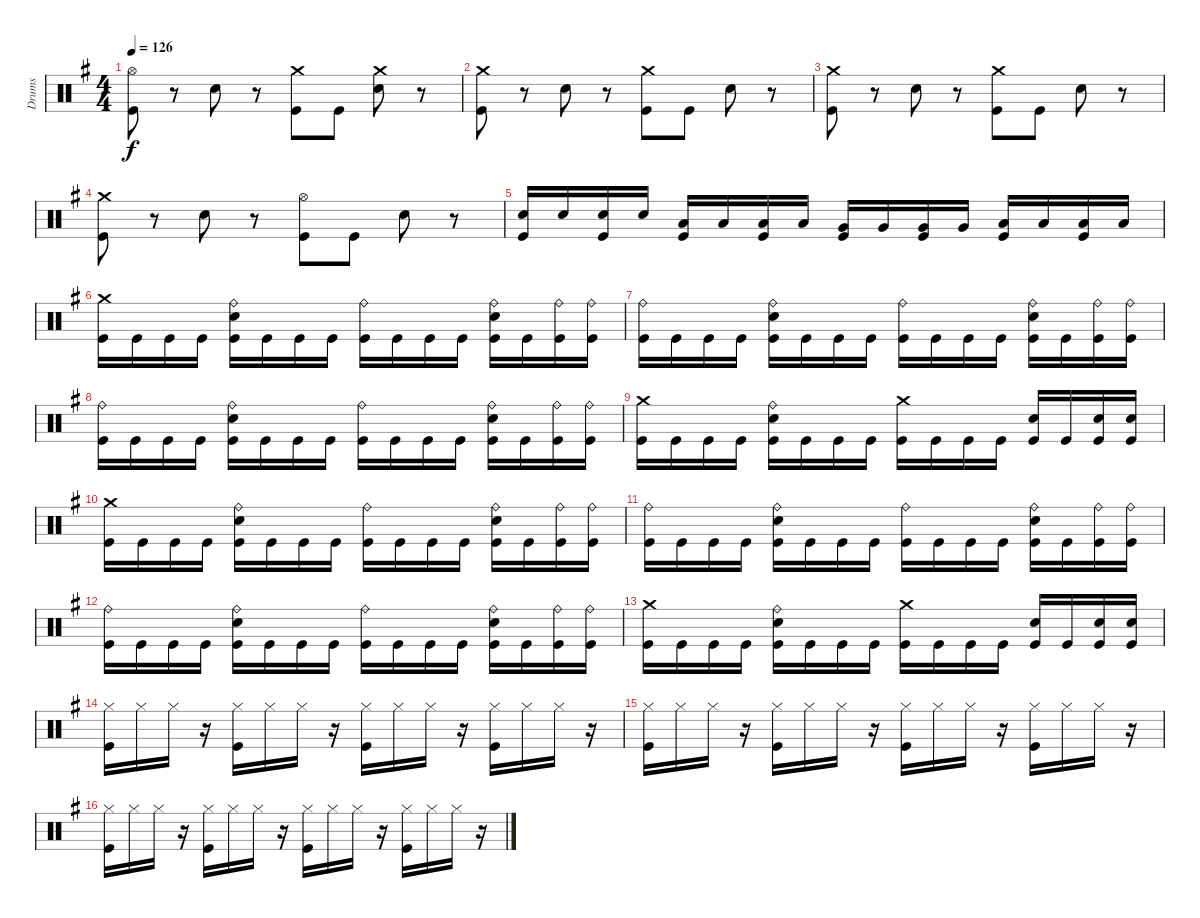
\track ("Drums" "Drums") {instrument percussion}
\staff {score}
\articulation defaults
\ts (4 4)
\tempo 126
\clef neutral
\ks g
("Kick (hit)" "Hi-Hat (open)").8{dy f} r.8 "Electric Snare (hit)".8 r.8 ("Kick (hit)" "Crash medium (hit)").8 "Kick (hit)".8 ("Electric Snare (hit)" "Crash medium (hit)").8 r.8 |
("Kick (hit)" "Crash medium (hit)").8 r.8 "Electric Snare (hit)".8 r.8 ("Kick (hit)" "Crash medium (hit)").8 "Kick (hit)".8 "Electric Snare (hit)".8 r.8 |
("Kick (hit)" "Crash medium (hit)").8 r.8 "Electric Snare (hit)".8 r.8 ("Kick (hit)" "Crash medium (hit)").8 "Kick (hit)".8 "Electric Snare (hit)".8 r.8 |
("Kick (hit)" "Crash medium (hit)").8 r.8 "Electric Snare (hit)".8 r.8 ("Kick (hit)" "Hi-Hat (open)").8 "Kick (hit)".8 "Electric Snare (hit)".8 r.8 |
("Kick (hit)" "Electric Snare (hit)").16 "Electric Snare (hit)".16 ("Kick (hit)" "Electric Snare (hit)").16 "Electric Snare (hit)".16 ("Kick (hit)" "Low Tom (hit)").16 "Low Tom (hit)".16 ("Kick (hit)" "Low Tom (hit)").16 "Low Tom (hit)".16 ("Kick (hit)" "Very Low Tom (hit)").16 "Very Low Tom (hit)".16 ("Kick (hit)" "Very Low Tom (hit)").16 "Very Low Tom (hit)".16 ("Kick (hit)" "Low Floor Tom (hit)").16 "Low Floor Tom (hit)".16 ("Kick (hit)" "Low Floor Tom (hit)").16 "Low Floor Tom (hit)".16 |
("Kick (hit)" "Crash medium (hit)").16 "Kick (hit)".16 "Kick (hit)".16 "Kick (hit)".16 ("Kick (hit)" "Electric Snare (hit)" "Ride (bell)").16 "Kick (hit)".16 "Kick (hit)".16 "Kick (hit)".16 ("Kick (hit)" "Ride (bell)").16 "Kick (hit)".16 "Kick (hit)".16 "Kick (hit)".16 ("Kick (hit)" "Electric Snare (hit)" "Ride (bell)").16 "Kick (hit)".16 ("Kick (hit)" "Ride (bell)").16 ("Kick (hit)" "Ride (bell)").16 |
("Kick (hit)" "Ride (bell)").16 "Kick (hit)".16 "Kick (hit)".16 "Kick (hit)".16 ("Kick (hit)" "Electric Snare (hit)" "Ride (bell)").16 "Kick (hit)".16 "Kick (hit)".16 "Kick (hit)".16 ("Kick (hit)" "Ride (bell)").16 "Kick (hit)".16 "Kick (hit)".16 "Kick (hit)".16 ("Kick (hit)" "Electric Snare (hit)" "Ride (bell)").16 "Kick (hit)".16 ("Kick (hit)" "Ride (bell)").16 ("Kick (hit)" "Ride (bell)").16 |
("Kick (hit)" "Ride (bell)").16 "Kick (hit)".16 "Kick (hit)".16 "Kick (hit)".16 ("Kick (hit)" "Electric Snare (hit)" "Ride (bell)").16 "Kick (hit)".16 "Kick (hit)".16 "Kick (hit)".16 ("Kick (hit)" "Ride (bell)").16 "Kick (hit)".16 "Kick (hit)".16 "Kick (hit)".16 ("Kick (hit)" "Electric Snare (hit)" "Ride (bell)").16 "Kick (hit)".16 ("Kick (hit)" "Ride (bell)").16 ("Kick (hit)" "Ride (bell)").16 |
("Kick (hit)" "Crash medium (hit)").16 "Kick (hit)".16 "Kick (hit)".16 "Kick (hit)".16 ("Kick (hit)" "Electric Snare (hit)" "Ride (bell)").16 "Kick (hit)".16 "Kick (hit)".16 "Kick (hit)".16 ("Kick (hit)" "Crash medium (hit)").16 "Kick (hit)".16 "Kick (hit)".16 "Kick (hit)".16 ("Kick (hit)" "Electric Snare (hit)").16 "Kick (hit)".16 ("Kick (hit)" "Electric Snare (hit)").16 ("Kick (hit)" "Electric Snare (hit)").16 |
("Kick (hit)" "Crash medium (hit)").16 "Kick (hit)".16 "Kick (hit)".16 "Kick (hit)".16 ("Kick (hit)" "Electric Snare (hit)" "Ride (bell)").16 "Kick (hit)".16 "Kick (hit)".16 "Kick (hit)".16 ("Kick (hit)" "Ride (bell)").16 "Kick (hit)".16 "Kick (hit)".16 "Kick (hit)".16 ("Kick (hit)" "Electric Snare (hit)" "Ride (bell)").16 "Kick (hit)".16 ("Kick (hit)" "Ride (bell)").16 ("Kick (hit)" "Ride (bell)").16 |
("Kick (hit)" "Ride (bell)").16 "Kick (hit)".16 "Kick (hit)".16 "Kick (hit)".16 ("Kick (hit)" "Electric Snare (hit)" "Ride (bell)").16 "Kick (hit)".16 "Kick (hit)".16 "Kick (hit)".16 ("Kick (hit)" "Ride (bell)").16 "Kick (hit)".16 "Kick (hit)".16 "Kick (hit)".16 ("Kick (hit)" "Electric Snare (hit)" "Ride (bell)").16 "Kick (hit)".16 ("Kick (hit)" "Ride (bell)").16 ("Kick (hit)" "Ride (bell)").16 |
("Kick (hit)" "Ride (bell)").16 "Kick (hit)".16 "Kick (hit)".16 "Kick (hit)".16 ("Kick (hit)" "Electric Snare (hit)" "Ride (bell)").16 "Kick (hit)".16 "Kick (hit)".16 "Kick (hit)".16 ("Kick (hit)" "Ride (bell)").16 "Kick (hit)".16 "Kick (hit)".16 "Kick (hit)".16 ("Kick (hit)" "Electric Snare (hit)" "Ride (bell)").16 "Kick (hit)".16 ("Kick (hit)" "Ride (bell)").16 ("Kick (hit)" "Ride (bell)").16 |
("Kick (hit)" "Crash medium (hit)").16 "Kick (hit)".16 "Kick (hit)".16 "Kick (hit)".16 ("Kick (hit)" "Electric Snare (hit)" "Ride (bell)").16 "Kick (hit)".16 "Kick (hit)".16 "Kick (hit)".16 ("Kick (hit)" "Crash medium (hit)").16 "Kick (hit)".16 "Kick (hit)".16 "Kick (hit)".16 ("Kick (hit)" "Electric Snare (hit)").16 "Kick (hit)".16 ("Kick (hit)" "Electric Snare (hit)").16 ("Kick (hit)" "Electric Snare (hit)").16 |
("Kick (hit)" "Hi-Hat (closed)").16 "Hi-Hat (closed)".16 "Hi-Hat (closed)".16 r.16 ("Kick (hit)" "Hi-Hat (closed)").16 "Hi-Hat (closed)".16 "Hi-Hat (closed)".16 r.16 ("Kick (hit)" "Hi-Hat (closed)").16 "Hi-Hat (closed)".16 "Hi-Hat (closed)".16 r.16 ("Kick (hit)" "Hi-Hat (closed)").16 "Hi-Hat (closed)".16 "Hi-Hat (closed)".16 r.16 |
("Kick (hit)" "Hi-Hat (closed)").16 "Hi-Hat (closed)".16 "Hi-Hat (closed)".16 r.16 ("Kick (hit)" "Hi-Hat (closed)").16 "Hi-Hat (closed)".16 "Hi-Hat (closed)".16 r.16 ("Kick (hit)" "Hi-Hat (closed)").16 "Hi-Hat (closed)".16 "Hi-Hat (closed)".16 r.16 ("Kick (hit)" "Hi-Hat (closed)").16 "Hi-Hat (closed)".16 "Hi-Hat (closed)".16 r.16 |
("Kick (hit)" "Hi-Hat (closed)").16 "Hi-Hat (closed)".16 "Hi-Hat (closed)".16 r.16 ("Kick (hit)" "Hi-Hat (closed)").16 "Hi-Hat (closed)".16 "Hi-Hat (closed)".16 r.16 ("Kick (hit)" "Hi-Hat (closed)").16 "Hi-Hat (closed)".16 "Hi-Hat (closed)".16 r.16 ("Kick (hit)" "Hi-Hat (closed)").16 "Hi-Hat (closed)".16 "Hi-Hat (closed)".16 r.16
